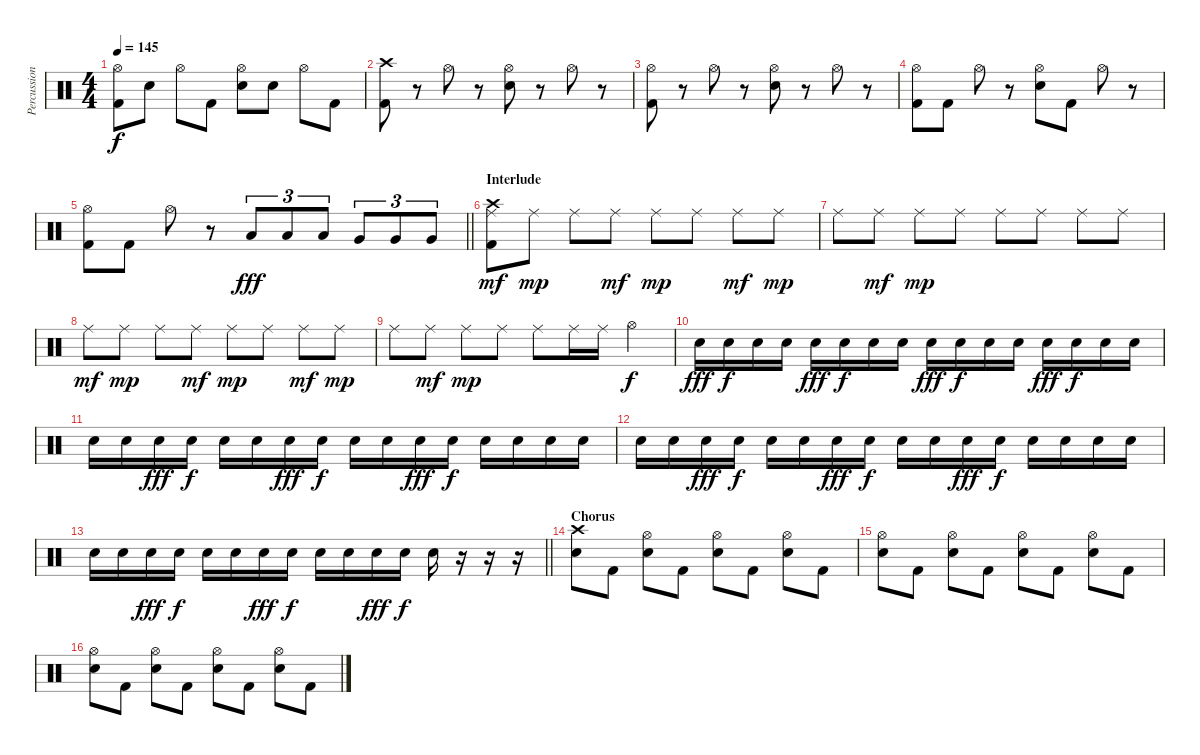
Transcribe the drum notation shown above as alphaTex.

\track ("Percussion" "Percussion") {instrument percussion}
\staff {score}
\articulation defaults
\ts (4 4)
\tempo 145
\clef neutral
\ks c
("Hi-Hat (open)" "Kick (hit) 2").8{dy f} "Snare (hit) 2".8 "Hi-Hat (open)".8 "Kick (hit) 2".8 ("Hi-Hat (open)" "Snare (hit) 2").8 "Snare (hit) 2".8 "Hi-Hat (open)".8 "Kick (hit) 2".8 |
("Crash high (hit)" "Kick (hit) 2").8 r.8 "Hi-Hat (open)".8 r.8 ("Hi-Hat (open)" "Snare (hit) 2").8 r.8 "Hi-Hat (open)".8 r.8 |
("Hi-Hat (open)" "Kick (hit) 2").8 r.8 "Hi-Hat (open)".8 r.8 ("Hi-Hat (open)" "Snare (hit) 2").8 r.8 "Hi-Hat (open)".8 r.8 |
("Hi-Hat (open)" "Kick (hit) 2").8 "Kick (hit) 2".8 "Hi-Hat (open)".8 r.8 ("Hi-Hat (open)" "Snare (hit) 2").8 "Kick (hit) 2".8 "Hi-Hat (open)".8 r.8 |
\barLineRight lightlight
("Hi-Hat (open)" "Kick (hit) 2").8 "Kick (hit) 2".8 "Hi-Hat (open)".8 r.8 "Low Tom (hit)".8{tu (3 2) dy fff} "Low Tom (hit)".8{tu (3 2)} "Low Tom (hit)".8{tu (3 2)} "Very Low Tom (hit)".8{tu (3 2)} "Very Low Tom (hit)".8{tu (3 2)} "Very Low Tom (hit)".8{tu (3 2)} |
\section ("" "Interlude")
("Crash high (hit)" "Ride (middle)" "Kick (hit) 2").8{dy mf} "Ride (middle)".8{dy mp} "Ride (middle)".8 "Ride (middle)".8{dy mf} "Ride (middle)".8{dy mp} "Ride (middle)".8 "Ride (middle)".8{dy mf} "Ride (middle)".8{dy mp} |
"Ride (middle)".8 "Ride (middle)".8{dy mf} "Ride (middle)".8{dy mp} "Ride (middle)".8 "Ride (middle)".8 "Ride (middle)".8 "Ride (middle)".8 "Ride (middle)".8 |
"Ride (middle)".8{dy mf} "Ride (middle)".8{dy mp} "Ride (middle)".8 "Ride (middle)".8{dy mf} "Ride (middle)".8{dy mp} "Ride (middle)".8 "Ride (middle)".8{dy mf} "Ride (middle)".8{dy mp} |
"Ride (middle)".8 "Ride (middle)".8{dy mf} "Ride (middle)".8{dy mp} "Ride (middle)".8 "Ride (middle)".8 "Ride (middle)".16 "Ride (middle)".16 "Hi-Hat (open)".4{dy f} |
"Snare (hit) 2".16{dy fff volume 1} "Snare (hit) 2".16{dy f volume 13} "Snare (hit) 2".16 "Snare (hit) 2".16 "Snare (hit) 2".16{dy fff} "Snare (hit) 2".16{dy f} "Snare (hit) 2".16 "Snare (hit) 2".16 "Snare (hit) 2".16{dy fff} "Snare (hit) 2".16{dy f} "Snare (hit) 2".16 "Snare (hit) 2".16 "Snare (hit) 2".16{dy fff} "Snare (hit) 2".16{dy f} "Snare (hit) 2".16 "Snare (hit) 2".16 |
"Snare (hit) 2".16 "Snare (hit) 2".16 "Snare (hit) 2".16{dy fff} "Snare (hit) 2".16{dy f} "Snare (hit) 2".16 "Snare (hit) 2".16 "Snare (hit) 2".16{dy fff} "Snare (hit) 2".16{dy f} "Snare (hit) 2".16 "Snare (hit) 2".16 "Snare (hit) 2".16{dy fff} "Snare (hit) 2".16{dy f} "Snare (hit) 2".16 "Snare (hit) 2".16 "Snare (hit) 2".16 "Snare (hit) 2".16 |
"Snare (hit) 2".16 "Snare (hit) 2".16 "Snare (hit) 2".16{dy fff} "Snare (hit) 2".16{dy f} "Snare (hit) 2".16 "Snare (hit) 2".16 "Snare (hit) 2".16{dy fff} "Snare (hit) 2".16{dy f} "Snare (hit) 2".16 "Snare (hit) 2".16 "Snare (hit) 2".16{dy fff} "Snare (hit) 2".16{dy f} "Snare (hit) 2".16 "Snare (hit) 2".16 "Snare (hit) 2".16 "Snare (hit) 2".16 |
\barLineRight lightlight "Snare (hit) 2".16 "Snare (hit) 2".16 "Snare (hit) 2".16{dy fff} "Snare (hit) 2".16{dy f} "Snare (hit) 2".16 "Snare (hit) 2".16 "Snare (hit) 2".16{dy fff} "Snare (hit) 2".16{dy f} "Snare (hit) 2".16 "Snare (hit) 2".16 "Snare (hit) 2".16{dy fff} "Snare (hit) 2".16{dy f} "Snare (hit) 2".16
r.16 r.16 r.16 |
\section ("" "Chorus")
("Crash high (hit)" "Snare (hit) 2").8 "Kick (hit) 2".8 ("Hi-Hat (open)" "Snare (hit) 2").8 "Kick (hit) 2".8 ("Hi-Hat (open)" "Snare (hit) 2").8 "Kick (hit) 2".8 ("Hi-Hat (open)" "Snare (hit) 2").8 "Kick (hit) 2".8 |
("Hi-Hat (open)" "Snare (hit) 2").8 "Kick (hit) 2".8 ("Hi-Hat (open)" "Snare (hit) 2").8 "Kick (hit) 2".8 ("Hi-Hat (open)" "Snare (hit) 2").8 "Kick (hit) 2".8 ("Hi-Hat (open)" "Snare (hit) 2").8 "Kick (hit) 2".8 |
("Hi-Hat (open)" "Snare (hit) 2").8 "Kick (hit) 2".8 ("Hi-Hat (open)" "Snare (hit) 2").8 "Kick (hit) 2".8 ("Hi-Hat (open)" "Snare (hit) 2").8 "Kick (hit) 2".8 ("Hi-Hat (open)" "Snare (hit) 2").8 "Kick (hit) 2".8
